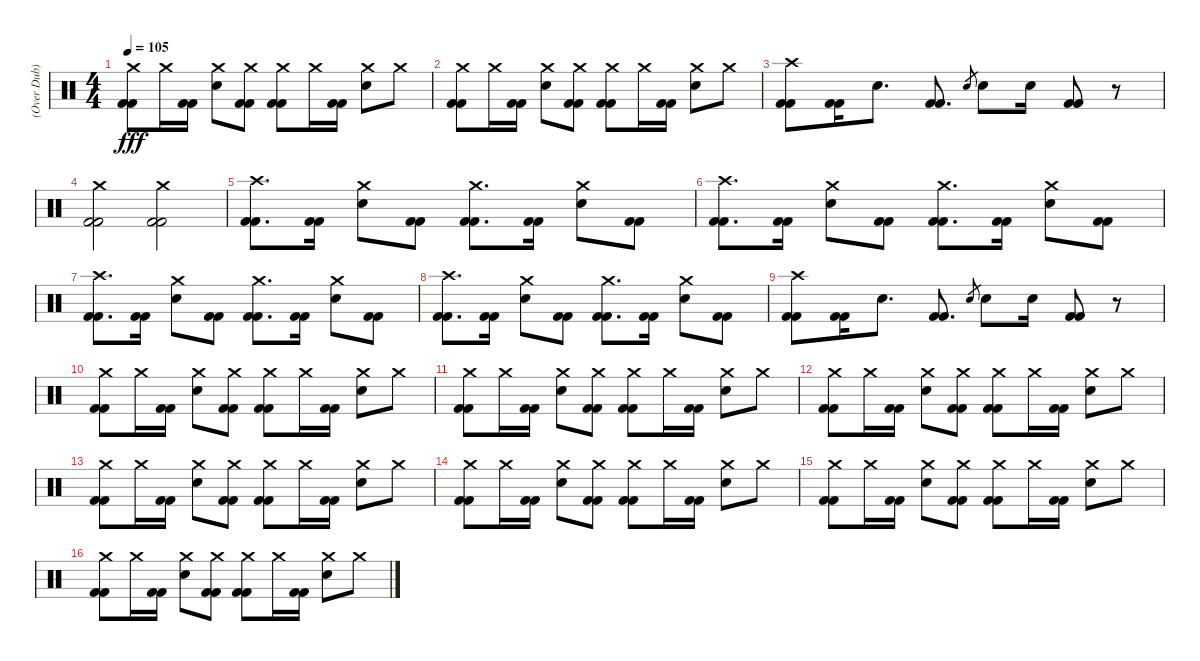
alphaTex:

\track ("(Over Dub)" "(Over Dub)") {instrument percussion}
\staff {score}
\articulation defaults
\ts (4 4)
\tempo 105
\clef neutral
\ks c
("Crash medium (hit)" "Kick (hit) 2" "Kick (hit) 2").8{dy fff} "Crash medium (hit)".16 ("Kick (hit) 2" "Kick (hit) 2").16 ("Crash medium (hit)" "Electric Snare (hit)").8 ("Crash medium (hit)" "Kick (hit) 2" "Kick (hit) 2").8 ("Crash medium (hit)" "Kick (hit) 2" "Kick (hit) 2").8 "Crash medium (hit)".16 ("Kick (hit) 2" "Kick (hit) 2").16 ("Crash medium (hit)" "Electric Snare (hit)").8 "Crash medium (hit)".8 |
("Crash medium (hit)" "Kick (hit) 2" "Kick (hit) 2").8 "Crash medium (hit)".16 ("Kick (hit) 2" "Kick (hit) 2").16 ("Crash medium (hit)" "Electric Snare (hit)").8 ("Crash medium (hit)" "Kick (hit) 2" "Kick (hit) 2").8 ("Crash medium (hit)" "Kick (hit) 2" "Kick (hit) 2").8 "Crash medium (hit)".16 ("Kick (hit) 2" "Kick (hit) 2").16 ("Crash medium (hit)" "Electric Snare (hit)").8 "Crash medium (hit)".8 |
("Crash high (hit)" "Kick (hit) 2" "Kick (hit) 2").8 ("Kick (hit) 2" "Kick (hit) 2").16 "Electric Snare (hit)".8{d} ("Kick (hit) 2" "Kick (hit) 2").8{d} "Electric Snare (hit)".8{gr} "Electric Snare (hit)".8 "Electric Snare (hit)".16 ("Kick (hit) 2" "Kick (hit) 2").8 r.8 |
("Crash medium (hit)" "Kick (hit) 2" "Kick (hit) 2").2 ("Crash medium (hit)" "Kick (hit) 2" "Kick (hit) 2").2 |
("Crash high (hit)" "Kick (hit) 2" "Kick (hit) 2").8{d} ("Kick (hit) 2" "Kick (hit) 2").16 ("Crash medium (hit)" "Electric Snare (hit)").8 ("Kick (hit) 2" "Kick (hit) 2").8 ("Crash medium (hit)" "Kick (hit) 2" "Kick (hit) 2").8{d} ("Kick (hit) 2" "Kick (hit) 2").16 ("Crash medium (hit)" "Electric Snare (hit)").8 ("Kick (hit) 2" "Kick (hit) 2").8 |
("Crash high (hit)" "Kick (hit) 2" "Kick (hit) 2").8{d} ("Kick (hit) 2" "Kick (hit) 2").16 ("Crash medium (hit)" "Electric Snare (hit)").8 ("Kick (hit) 2" "Kick (hit) 2").8 ("Crash medium (hit)" "Kick (hit) 2" "Kick (hit) 2").8{d} ("Kick (hit) 2" "Kick (hit) 2").16 ("Crash medium (hit)" "Electric Snare (hit)").8 ("Kick (hit) 2" "Kick (hit) 2").8 |
("Crash high (hit)" "Kick (hit) 2" "Kick (hit) 2").8{d} ("Kick (hit) 2" "Kick (hit) 2").16 ("Crash medium (hit)" "Electric Snare (hit)").8 ("Kick (hit) 2" "Kick (hit) 2").8 ("Crash medium (hit)" "Kick (hit) 2" "Kick (hit) 2").8{d} ("Kick (hit) 2" "Kick (hit) 2").16 ("Crash medium (hit)" "Electric Snare (hit)").8 ("Kick (hit) 2" "Kick (hit) 2").8 |
("Crash high (hit)" "Kick (hit) 2" "Kick (hit) 2").8{d} ("Kick (hit) 2" "Kick (hit) 2").16 ("Crash medium (hit)" "Electric Snare (hit)").8 ("Kick (hit) 2" "Kick (hit) 2").8 ("Crash medium (hit)" "Kick (hit) 2" "Kick (hit) 2").8{d} ("Kick (hit) 2" "Kick (hit) 2").16 ("Crash medium (hit)" "Electric Snare (hit)").8 ("Kick (hit) 2" "Kick (hit) 2").8 |
("Crash high (hit)" "Kick (hit) 2" "Kick (hit) 2").8 ("Kick (hit) 2" "Kick (hit) 2").16 "Electric Snare (hit)".8{d} ("Kick (hit) 2" "Kick (hit) 2").8{d} "Electric Snare (hit)".8{gr} "Electric Snare (hit)".8 "Electric Snare (hit)".16 ("Kick (hit) 2" "Kick (hit) 2").8 r.8 |
("Crash medium (hit)" "Kick (hit) 2" "Kick (hit) 2").8 "Crash medium (hit)".16 ("Kick (hit) 2" "Kick (hit) 2").16 ("Crash medium (hit)" "Electric Snare (hit)").8 ("Crash medium (hit)" "Kick (hit) 2" "Kick (hit) 2").8 ("Crash medium (hit)" "Kick (hit) 2" "Kick (hit) 2").8 "Crash medium (hit)".16 ("Kick (hit) 2" "Kick (hit) 2").16 ("Crash medium (hit)" "Electric Snare (hit)").8 "Crash medium (hit)".8 |
("Crash medium (hit)" "Kick (hit) 2" "Kick (hit) 2").8 "Crash medium (hit)".16 ("Kick (hit) 2" "Kick (hit) 2").16 ("Crash medium (hit)" "Electric Snare (hit)").8 ("Crash medium (hit)" "Kick (hit) 2" "Kick (hit) 2").8 ("Crash medium (hit)" "Kick (hit) 2" "Kick (hit) 2").8 "Crash medium (hit)".16 ("Kick (hit) 2" "Kick (hit) 2").16 ("Crash medium (hit)" "Electric Snare (hit)").8 "Crash medium (hit)".8 |
("Crash medium (hit)" "Kick (hit) 2" "Kick (hit) 2").8 "Crash medium (hit)".16 ("Kick (hit) 2" "Kick (hit) 2").16 ("Crash medium (hit)" "Electric Snare (hit)").8 ("Crash medium (hit)" "Kick (hit) 2" "Kick (hit) 2").8 ("Crash medium (hit)" "Kick (hit) 2" "Kick (hit) 2").8 "Crash medium (hit)".16 ("Kick (hit) 2" "Kick (hit) 2").16 ("Crash medium (hit)" "Electric Snare (hit)").8 "Crash medium (hit)".8 |
("Crash medium (hit)" "Kick (hit) 2" "Kick (hit) 2").8 "Crash medium (hit)".16 ("Kick (hit) 2" "Kick (hit) 2").16 ("Crash medium (hit)" "Electric Snare (hit)").8 ("Crash medium (hit)" "Kick (hit) 2" "Kick (hit) 2").8 ("Crash medium (hit)" "Kick (hit) 2" "Kick (hit) 2").8 "Crash medium (hit)".16 ("Kick (hit) 2" "Kick (hit) 2").16 ("Crash medium (hit)" "Electric Snare (hit)").8 "Crash medium (hit)".8 |
("Crash medium (hit)" "Kick (hit) 2" "Kick (hit) 2").8 "Crash medium (hit)".16 ("Kick (hit) 2" "Kick (hit) 2").16 ("Crash medium (hit)" "Electric Snare (hit)").8 ("Crash medium (hit)" "Kick (hit) 2" "Kick (hit) 2").8 ("Crash medium (hit)" "Kick (hit) 2" "Kick (hit) 2").8 "Crash medium (hit)".16 ("Kick (hit) 2" "Kick (hit) 2").16 ("Crash medium (hit)" "Electric Snare (hit)").8 "Crash medium (hit)".8 |
("Crash medium (hit)" "Kick (hit) 2" "Kick (hit) 2").8 "Crash medium (hit)".16 ("Kick (hit) 2" "Kick (hit) 2").16 ("Crash medium (hit)" "Electric Snare (hit)").8 ("Crash medium (hit)" "Kick (hit) 2" "Kick (hit) 2").8 ("Crash medium (hit)" "Kick (hit) 2" "Kick (hit) 2").8 "Crash medium (hit)".16 ("Kick (hit) 2" "Kick (hit) 2").16 ("Crash medium (hit)" "Electric Snare (hit)").8 "Crash medium (hit)".8 |
("Crash medium (hit)" "Kick (hit) 2" "Kick (hit) 2").8 "Crash medium (hit)".16 ("Kick (hit) 2" "Kick (hit) 2").16 ("Crash medium (hit)" "Electric Snare (hit)").8 ("Crash medium (hit)" "Kick (hit) 2" "Kick (hit) 2").8 ("Crash medium (hit)" "Kick (hit) 2" "Kick (hit) 2").8 "Crash medium (hit)".16 ("Kick (hit) 2" "Kick (hit) 2").16 ("Crash medium (hit)" "Electric Snare (hit)").8 "Crash medium (hit)".8
